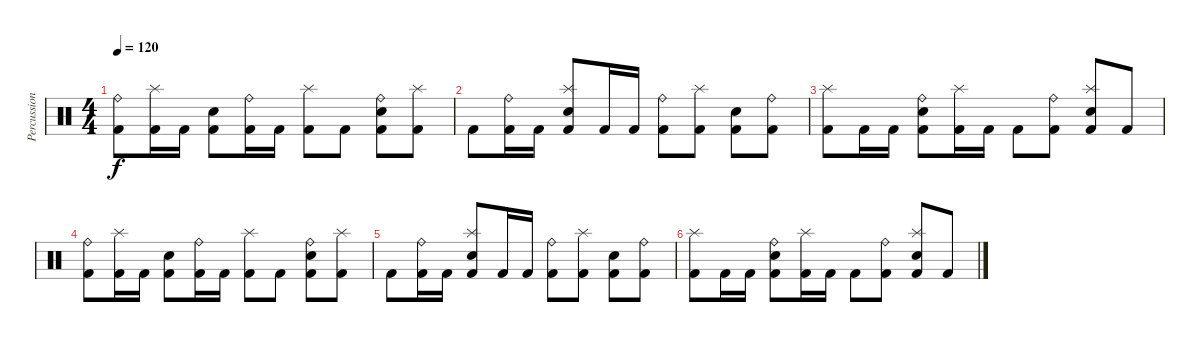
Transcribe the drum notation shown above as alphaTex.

\track ("Percussion" "Percussion") {instrument percussion}
\staff {score}
\articulation defaults
\ts (4 4)
\tempo 120
\clef neutral
\ks c
("Ride (bell)" "Kick (hit) 2").8{dy f} ("Splash (hit)" "Kick (hit) 2").16 "Kick (hit) 2".16 ("Electric Snare (hit)" "Kick (hit) 2").8 ("Ride (bell)" "Kick (hit) 2").16 "Kick (hit) 2".16 ("Splash (hit)" "Kick (hit) 2").8 "Kick (hit) 2".8 ("Ride (bell)" "Electric Snare (hit)" "Kick (hit) 2").8 ("Splash (hit)" "Kick (hit) 2").8 |
"Kick (hit) 2".8 ("Ride (bell)" "Kick (hit) 2").16 "Kick (hit) 2".16 ("Splash (hit)" "Electric Snare (hit)" "Kick (hit) 2").8 "Kick (hit) 2".16 "Kick (hit) 2".16 ("Ride (bell)" "Kick (hit) 2").8 ("Splash (hit)" "Kick (hit) 2").8 ("Electric Snare (hit)" "Kick (hit) 2").8 ("Ride (bell)" "Kick (hit) 2").8 |
("Splash (hit)" "Kick (hit) 2").8 "Kick (hit) 2".16 "Kick (hit) 2".16 ("Ride (bell)" "Electric Snare (hit)" "Kick (hit) 2").8 ("Splash (hit)" "Kick (hit) 2").16 "Kick (hit) 2".16 "Kick (hit) 2".8 ("Ride (bell)" "Kick (hit) 2").8 ("Splash (hit)" "Electric Snare (hit)" "Kick (hit) 2").8 "Kick (hit) 2".8 |
("Ride (bell)" "Kick (hit) 2").8 ("Splash (hit)" "Kick (hit) 2").16 "Kick (hit) 2".16 ("Electric Snare (hit)" "Kick (hit) 2").8 ("Ride (bell)" "Kick (hit) 2").16 "Kick (hit) 2".16 ("Splash (hit)" "Kick (hit) 2").8 "Kick (hit) 2".8 ("Ride (bell)" "Electric Snare (hit)" "Kick (hit) 2").8 ("Splash (hit)" "Kick (hit) 2").8 |
"Kick (hit) 2".8 ("Ride (bell)" "Kick (hit) 2").16 "Kick (hit) 2".16 ("Splash (hit)" "Electric Snare (hit)" "Kick (hit) 2").8 "Kick (hit) 2".16 "Kick (hit) 2".16 ("Ride (bell)" "Kick (hit) 2").8 ("Splash (hit)" "Kick (hit) 2").8 ("Electric Snare (hit)" "Kick (hit) 2").8 ("Ride (bell)" "Kick (hit) 2").8 |
("Splash (hit)" "Kick (hit) 2").8 "Kick (hit) 2".16 "Kick (hit) 2".16 ("Ride (bell)" "Electric Snare (hit)" "Kick (hit) 2").8 ("Splash (hit)" "Kick (hit) 2").16 "Kick (hit) 2".16 "Kick (hit) 2".8 ("Ride (bell)" "Kick (hit) 2").8 ("Splash (hit)" "Electric Snare (hit)" "Kick (hit) 2").8 "Kick (hit) 2".8
